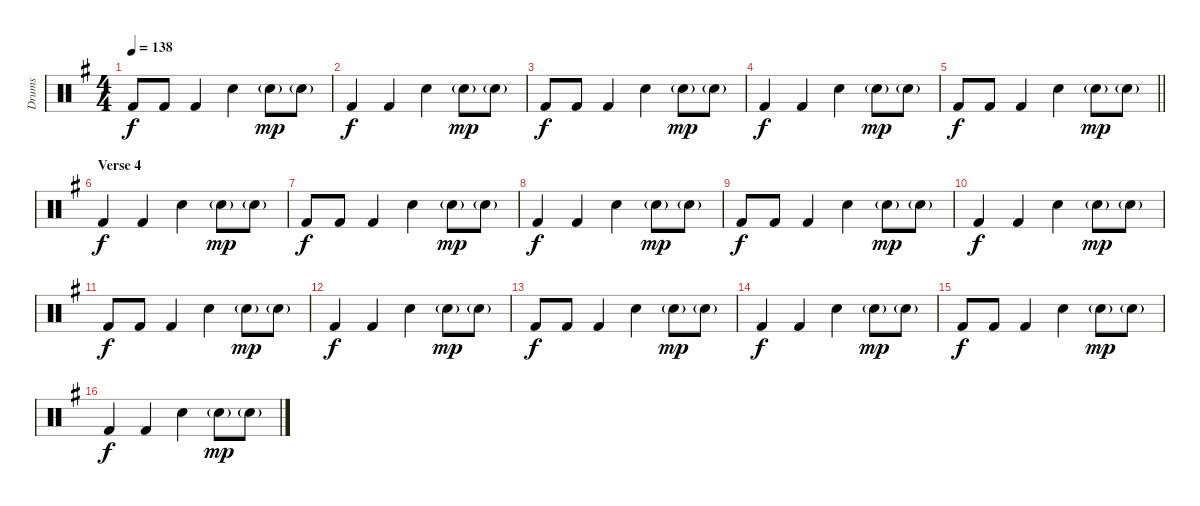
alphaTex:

\track ("Drums" "Drums") {instrument percussion}
\staff {score}
\articulation defaults
\ts (4 4)
\tempo 138
\clef neutral
\ks g "Kick (hit) 2".8{dy f} "Kick (hit) 2".8 "Kick (hit) 2".4 "Snare (hit) 2".4 "Snare (hit) 2"{g}.8{dy mp} "Snare (hit) 2"{g}.8
|
"Kick (hit) 2".4{dy f} "Kick (hit) 2".4 "Snare (hit) 2".4 "Snare (hit) 2"{g}.8{dy mp} "Snare (hit) 2"{g}.8 |
"Kick (hit) 2".8{dy f} "Kick (hit) 2".8 "Kick (hit) 2".4 "Snare (hit) 2".4 "Snare (hit) 2"{g}.8{dy mp} "Snare (hit) 2"{g}.8 |
"Kick (hit) 2".4{dy f} "Kick (hit) 2".4 "Snare (hit) 2".4 "Snare (hit) 2"{g}.8{dy mp} "Snare (hit) 2"{g}.8 |
\barLineRight lightlight "Kick (hit) 2".8{dy f} "Kick (hit) 2".8 "Kick (hit) 2".4 "Snare (hit) 2".4 "Snare (hit) 2"{g}.8{dy mp} "Snare (hit) 2"{g}.8
|
\section ("" "Verse 4")
"Kick (hit) 2".4{dy f} "Kick (hit) 2".4 "Snare (hit) 2".4 "Snare (hit) 2"{g}.8{dy mp} "Snare (hit) 2"{g}.8 |
"Kick (hit) 2".8{dy f} "Kick (hit) 2".8 "Kick (hit) 2".4 "Snare (hit) 2".4 "Snare (hit) 2"{g}.8{dy mp} "Snare (hit) 2"{g}.8 |
"Kick (hit) 2".4{dy f} "Kick (hit) 2".4 "Snare (hit) 2".4 "Snare (hit) 2"{g}.8{dy mp} "Snare (hit) 2"{g}.8 |
"Kick (hit) 2".8{dy f} "Kick (hit) 2".8 "Kick (hit) 2".4 "Snare (hit) 2".4 "Snare (hit) 2"{g}.8{dy mp} "Snare (hit) 2"{g}.8 |
"Kick (hit) 2".4{dy f} "Kick (hit) 2".4 "Snare (hit) 2".4 "Snare (hit) 2"{g}.8{dy mp} "Snare (hit) 2"{g}.8 |
"Kick (hit) 2".8{dy f} "Kick (hit) 2".8 "Kick (hit) 2".4 "Snare (hit) 2".4 "Snare (hit) 2"{g}.8{dy mp} "Snare (hit) 2"{g}.8 |
"Kick (hit) 2".4{dy f} "Kick (hit) 2".4 "Snare (hit) 2".4 "Snare (hit) 2"{g}.8{dy mp} "Snare (hit) 2"{g}.8 |
"Kick (hit) 2".8{dy f} "Kick (hit) 2".8 "Kick (hit) 2".4 "Snare (hit) 2".4 "Snare (hit) 2"{g}.8{dy mp} "Snare (hit) 2"{g}.8 |
"Kick (hit) 2".4{dy f} "Kick (hit) 2".4 "Snare (hit) 2".4 "Snare (hit) 2"{g}.8{dy mp} "Snare (hit) 2"{g}.8 |
"Kick (hit) 2".8{dy f} "Kick (hit) 2".8 "Kick (hit) 2".4 "Snare (hit) 2".4 "Snare (hit) 2"{g}.8{dy mp} "Snare (hit) 2"{g}.8 |
"Kick (hit) 2".4{dy f} "Kick (hit) 2".4 "Snare (hit) 2".4 "Snare (hit) 2"{g}.8{dy mp} "Snare (hit) 2"{g}.8
